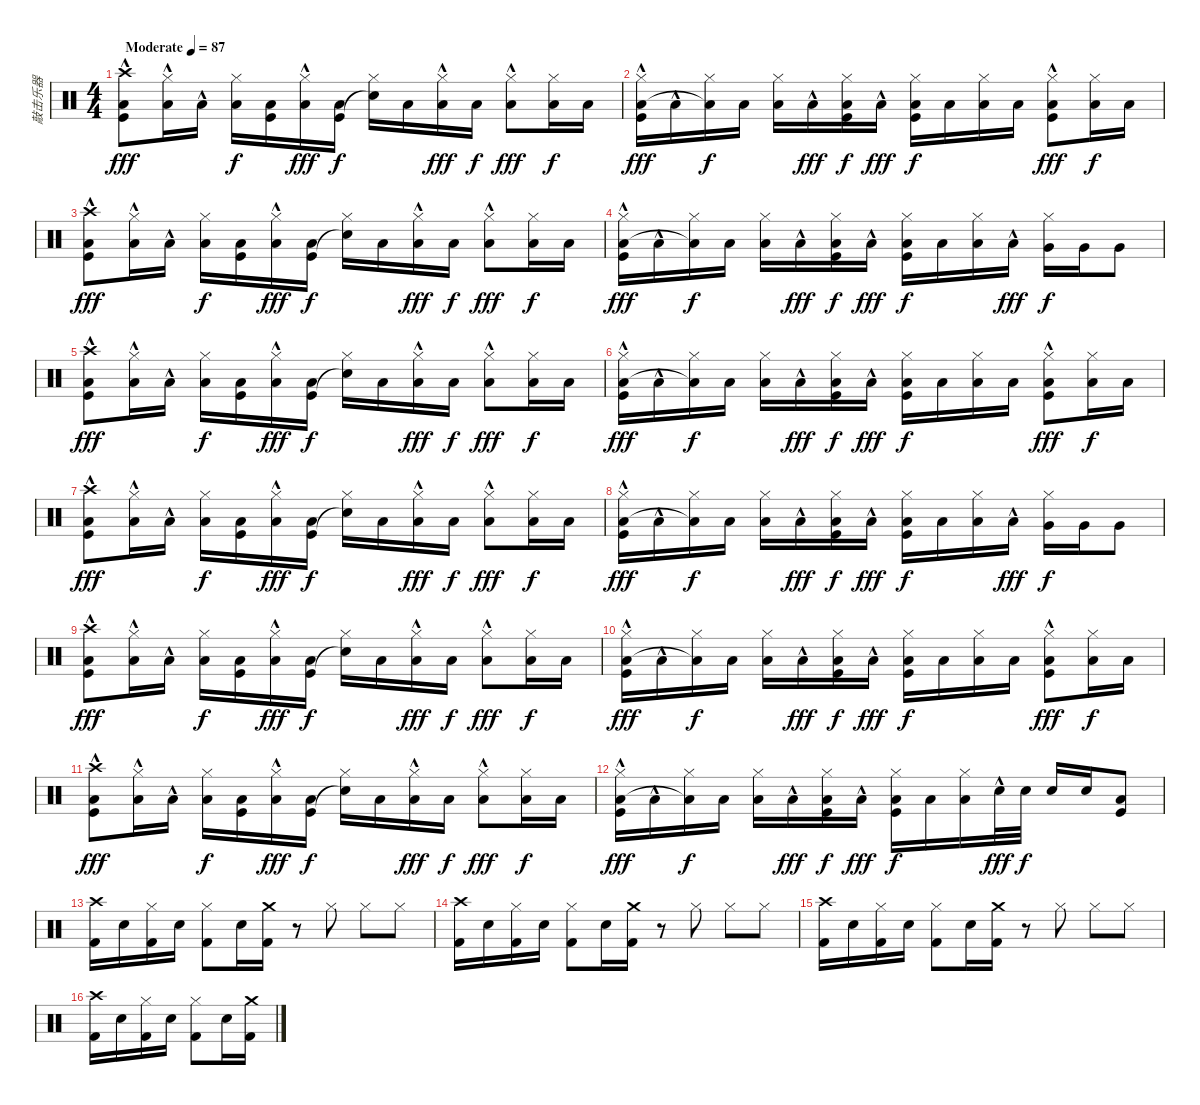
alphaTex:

\track ("敲击乐器" "敲击乐器") {instrument percussion}
\staff {score}
\articulation defaults
\ts (4 4)
\tempo (87 "Moderate")
\clef neutral
\ks c
("Crash high (hit)" "Low Floor Tom (hit)"{hac} "Kick (hit)").8{dy fff} ("Hi-Hat (closed)" "Low Floor Tom (hit)"{hac}).16 "Low Floor Tom (hit)"{hac}.16 ("Hi-Hat (closed)" "Low Floor Tom (hit)").16{dy f} ("Low Floor Tom (hit)" "Kick (hit)").16 ("Hi-Hat (closed)" "Low Floor Tom (hit)"{hac}).16{dy fff} ("Low Floor Tom (hit)" "Kick (hit)").16{dy f} ("Hi-Hat (closed)" "Snare (hit)"{t}).16 "Low Floor Tom (hit)".16 ("Hi-Hat (closed)" "Low Floor Tom (hit)"{hac}).16{dy fff} "Low Floor Tom (hit)".16{dy f} ("Hi-Hat (closed)" "Low Floor Tom (hit)"{hac}).8{dy fff} ("Hi-Hat (closed)" "Low Floor Tom (hit)").16{dy f} "Low Floor Tom (hit)".16 |
("Hi-Hat (closed)" "Low Floor Tom (hit)"{hac} "Kick (hit)").16{dy fff} "Low Floor Tom (hit)"{hac}.16 ("Hi-Hat (closed)" "Low Floor Tom (hit)"{t}).16{dy f} "Low Floor Tom (hit)".16 ("Hi-Hat (closed)" "Low Floor Tom (hit)").16 "Low Floor Tom (hit)"{hac}.16{dy fff} ("Hi-Hat (closed)" "Low Floor Tom (hit)" "Kick (hit)").16{dy f} "Low Floor Tom (hit)"{hac}.16{dy fff} ("Hi-Hat (closed)" "Low Floor Tom (hit)" "Kick (hit)").16{dy f} "Low Floor Tom (hit)".16 ("Hi-Hat (closed)" "Low Floor Tom (hit)").16 "Low Floor Tom (hit)".16 ("Hi-Hat (closed)" "Low Floor Tom (hit)"{hac} "Kick (hit)").8{dy fff} ("Hi-Hat (closed)" "Low Floor Tom (hit)").16{dy f} "Low Floor Tom (hit)".16 |
("Crash high (hit)" "Low Floor Tom (hit)"{hac} "Kick (hit)").8{dy fff} ("Hi-Hat (closed)" "Low Floor Tom (hit)"{hac}).16 "Low Floor Tom (hit)"{hac}.16 ("Hi-Hat (closed)" "Low Floor Tom (hit)").16{dy f} ("Low Floor Tom (hit)" "Kick (hit)").16 ("Hi-Hat (closed)" "Low Floor Tom (hit)"{hac}).16{dy fff} ("Low Floor Tom (hit)" "Kick (hit)").16{dy f} ("Hi-Hat (closed)" "Snare (hit)"{t}).16 "Low Floor Tom (hit)".16 ("Hi-Hat (closed)" "Low Floor Tom (hit)"{hac}).16{dy fff} "Low Floor Tom (hit)".16{dy f} ("Hi-Hat (closed)" "Low Floor Tom (hit)"{hac}).8{dy fff} ("Hi-Hat (closed)" "Low Floor Tom (hit)").16{dy f} "Low Floor Tom (hit)".16 |
("Hi-Hat (closed)" "Low Floor Tom (hit)"{hac} "Kick (hit)").16{dy fff} "Low Floor Tom (hit)"{hac}.16 ("Hi-Hat (closed)" "Low Floor Tom (hit)"{t}).16{dy f} "Low Floor Tom (hit)".16 ("Hi-Hat (closed)" "Low Floor Tom (hit)").16 "Low Floor Tom (hit)"{hac}.16{dy fff} ("Hi-Hat (closed)" "Low Floor Tom (hit)" "Kick (hit)").16{dy f} "Low Floor Tom (hit)"{hac}.16{dy fff} ("Hi-Hat (closed)" "Low Floor Tom (hit)" "Kick (hit)").16{dy f} "Low Floor Tom (hit)".16 ("Hi-Hat (closed)" "Low Floor Tom (hit)").16 "Low Floor Tom (hit)"{hac}.16{dy fff} ("Hi-Hat (closed)" "Very Low Tom (hit)").16{dy f} "Very Low Tom (hit)".16 "Very Low Tom (hit)".8 |
("Crash high (hit)" "Low Floor Tom (hit)"{hac} "Kick (hit)").8{dy fff} ("Hi-Hat (closed)" "Low Floor Tom (hit)"{hac}).16 "Low Floor Tom (hit)"{hac}.16 ("Hi-Hat (closed)" "Low Floor Tom (hit)").16{dy f} ("Low Floor Tom (hit)" "Kick (hit)").16 ("Hi-Hat (closed)" "Low Floor Tom (hit)"{hac}).16{dy fff} ("Low Floor Tom (hit)" "Kick (hit)").16{dy f} ("Hi-Hat (closed)" "Snare (hit)"{t}).16 "Low Floor Tom (hit)".16 ("Hi-Hat (closed)" "Low Floor Tom (hit)"{hac}).16{dy fff} "Low Floor Tom (hit)".16{dy f} ("Hi-Hat (closed)" "Low Floor Tom (hit)"{hac}).8{dy fff} ("Hi-Hat (closed)" "Low Floor Tom (hit)").16{dy f} "Low Floor Tom (hit)".16 |
("Hi-Hat (closed)" "Low Floor Tom (hit)"{hac} "Kick (hit)").16{dy fff} "Low Floor Tom (hit)"{hac}.16 ("Hi-Hat (closed)" "Low Floor Tom (hit)"{t}).16{dy f} "Low Floor Tom (hit)".16 ("Hi-Hat (closed)" "Low Floor Tom (hit)").16 "Low Floor Tom (hit)"{hac}.16{dy fff} ("Hi-Hat (closed)" "Low Floor Tom (hit)" "Kick (hit)").16{dy f} "Low Floor Tom (hit)"{hac}.16{dy fff} ("Hi-Hat (closed)" "Low Floor Tom (hit)" "Kick (hit)").16{dy f} "Low Floor Tom (hit)".16 ("Hi-Hat (closed)" "Low Floor Tom (hit)").16 "Low Floor Tom (hit)".16 ("Hi-Hat (closed)" "Low Floor Tom (hit)"{hac} "Kick (hit)").8{dy fff} ("Hi-Hat (closed)" "Low Floor Tom (hit)").16{dy f} "Low Floor Tom (hit)".16 |
("Crash high (hit)" "Low Floor Tom (hit)"{hac} "Kick (hit)").8{dy fff} ("Hi-Hat (closed)" "Low Floor Tom (hit)"{hac}).16 "Low Floor Tom (hit)"{hac}.16 ("Hi-Hat (closed)" "Low Floor Tom (hit)").16{dy f} ("Low Floor Tom (hit)" "Kick (hit)").16 ("Hi-Hat (closed)" "Low Floor Tom (hit)"{hac}).16{dy fff} ("Low Floor Tom (hit)" "Kick (hit)").16{dy f} ("Hi-Hat (closed)" "Snare (hit)"{t}).16 "Low Floor Tom (hit)".16 ("Hi-Hat (closed)" "Low Floor Tom (hit)"{hac}).16{dy fff} "Low Floor Tom (hit)".16{dy f} ("Hi-Hat (closed)" "Low Floor Tom (hit)"{hac}).8{dy fff} ("Hi-Hat (closed)" "Low Floor Tom (hit)").16{dy f} "Low Floor Tom (hit)".16 |
("Hi-Hat (closed)" "Low Floor Tom (hit)"{hac} "Kick (hit)").16{dy fff} "Low Floor Tom (hit)"{hac}.16 ("Hi-Hat (closed)" "Low Floor Tom (hit)"{t}).16{dy f} "Low Floor Tom (hit)".16 ("Hi-Hat (closed)" "Low Floor Tom (hit)").16 "Low Floor Tom (hit)"{hac}.16{dy fff} ("Hi-Hat (closed)" "Low Floor Tom (hit)" "Kick (hit)").16{dy f} "Low Floor Tom (hit)"{hac}.16{dy fff} ("Hi-Hat (closed)" "Low Floor Tom (hit)" "Kick (hit)").16{dy f} "Low Floor Tom (hit)".16 ("Hi-Hat (closed)" "Low Floor Tom (hit)").16 "Low Floor Tom (hit)"{hac}.16{dy fff} ("Hi-Hat (closed)" "Very Low Tom (hit)").16{dy f} "Very Low Tom (hit)".16 "Very Low Tom (hit)".8 |
("Crash high (hit)" "Low Floor Tom (hit)"{hac} "Kick (hit)").8{dy fff} ("Hi-Hat (closed)" "Low Floor Tom (hit)"{hac}).16 "Low Floor Tom (hit)"{hac}.16 ("Hi-Hat (closed)" "Low Floor Tom (hit)").16{dy f} ("Low Floor Tom (hit)" "Kick (hit)").16 ("Hi-Hat (closed)" "Low Floor Tom (hit)"{hac}).16{dy fff} ("Low Floor Tom (hit)" "Kick (hit)").16{dy f} ("Hi-Hat (closed)" "Snare (hit)"{t}).16 "Low Floor Tom (hit)".16 ("Hi-Hat (closed)" "Low Floor Tom (hit)"{hac}).16{dy fff} "Low Floor Tom (hit)".16{dy f} ("Hi-Hat (closed)" "Low Floor Tom (hit)"{hac}).8{dy fff} ("Hi-Hat (closed)" "Low Floor Tom (hit)").16{dy f} "Low Floor Tom (hit)".16 |
("Hi-Hat (closed)" "Low Floor Tom (hit)"{hac} "Kick (hit)").16{dy fff} "Low Floor Tom (hit)"{hac}.16 ("Hi-Hat (closed)" "Low Floor Tom (hit)"{t}).16{dy f} "Low Floor Tom (hit)".16 ("Hi-Hat (closed)" "Low Floor Tom (hit)").16 "Low Floor Tom (hit)"{hac}.16{dy fff} ("Hi-Hat (closed)" "Low Floor Tom (hit)" "Kick (hit)").16{dy f} "Low Floor Tom (hit)"{hac}.16{dy fff} ("Hi-Hat (closed)" "Low Floor Tom (hit)" "Kick (hit)").16{dy f} "Low Floor Tom (hit)".16 ("Hi-Hat (closed)" "Low Floor Tom (hit)").16 "Low Floor Tom (hit)".16 ("Hi-Hat (closed)" "Low Floor Tom (hit)"{hac} "Kick (hit)").8{dy fff} ("Hi-Hat (closed)" "Low Floor Tom (hit)").16{dy f} "Low Floor Tom (hit)".16 |
("Crash high (hit)" "Low Floor Tom (hit)"{hac} "Kick (hit)").8{dy fff} ("Hi-Hat (closed)" "Low Floor Tom (hit)"{hac}).16 "Low Floor Tom (hit)"{hac}.16 ("Hi-Hat (closed)" "Low Floor Tom (hit)").16{dy f} ("Low Floor Tom (hit)" "Kick (hit)").16 ("Hi-Hat (closed)" "Low Floor Tom (hit)"{hac}).16{dy fff} ("Low Floor Tom (hit)" "Kick (hit)").16{dy f} ("Hi-Hat (closed)" "Snare (hit)"{t}).16 "Low Floor Tom (hit)".16 ("Hi-Hat (closed)" "Low Floor Tom (hit)"{hac}).16{dy fff} "Low Floor Tom (hit)".16{dy f} ("Hi-Hat (closed)" "Low Floor Tom (hit)"{hac}).8{dy fff} ("Hi-Hat (closed)" "Low Floor Tom (hit)").16{dy f} "Low Floor Tom (hit)".16 |
("Hi-Hat (closed)" "Low Floor Tom (hit)"{hac} "Kick (hit)").16{dy fff} "Low Floor Tom (hit)"{hac}.16 ("Hi-Hat (closed)" "Low Floor Tom (hit)"{t}).16{dy f} "Low Floor Tom (hit)".16 ("Hi-Hat (closed)" "Low Floor Tom (hit)").16 "Low Floor Tom (hit)"{hac}.16{dy fff} ("Hi-Hat (closed)" "Low Floor Tom (hit)" "Kick (hit)").16{dy f} "Low Floor Tom (hit)"{hac}.16{dy fff} ("Hi-Hat (closed)" "Low Floor Tom (hit)" "Kick (hit)").16{dy f} "Low Floor Tom (hit)".16 ("Hi-Hat (closed)" "Low Floor Tom (hit)").16 "Snare (hit) 2"{hac}.32{dy fff} "Snare (hit) 2".32{dy f} "Snare (hit) 2".16 "Snare (hit) 2".16 ("Low Tom (hit)" "Kick (hit)").8 |
("Crash high (hit)" "Kick (hit) 2").16 "Snare (hit) 2".16 ("Hi-Hat (closed)" "Kick (hit) 2").16 "Snare (hit) 2".16 ("Hi-Hat (closed)" "Kick (hit) 2").8 "Snare (hit) 2".16 ("Crash medium (hit)" "Kick (hit) 2").16 r.8 "Hi-Hat (closed)".8 "Hi-Hat (closed)".8 "Hi-Hat (closed)".8 |
("Crash high (hit)" "Kick (hit) 2").16 "Snare (hit) 2".16 ("Hi-Hat (closed)" "Kick (hit) 2").16 "Snare (hit) 2".16 ("Hi-Hat (closed)" "Kick (hit) 2").8 "Snare (hit) 2".16 ("Crash medium (hit)" "Kick (hit) 2").16 r.8 "Hi-Hat (closed)".8 "Hi-Hat (closed)".8 "Hi-Hat (closed)".8 |
("Crash high (hit)" "Kick (hit) 2").16 "Snare (hit) 2".16 ("Hi-Hat (closed)" "Kick (hit) 2").16 "Snare (hit) 2".16 ("Hi-Hat (closed)" "Kick (hit) 2").8 "Snare (hit) 2".16 ("Crash medium (hit)" "Kick (hit) 2").16 r.8 "Hi-Hat (closed)".8 "Hi-Hat (closed)".8 "Hi-Hat (closed)".8 |
("Crash high (hit)" "Kick (hit) 2").16 "Snare (hit) 2".16 ("Hi-Hat (closed)" "Kick (hit) 2").16 "Snare (hit) 2".16 ("Hi-Hat (closed)" "Kick (hit) 2").8 "Snare (hit) 2".16 ("Crash medium (hit)" "Kick (hit) 2").16
